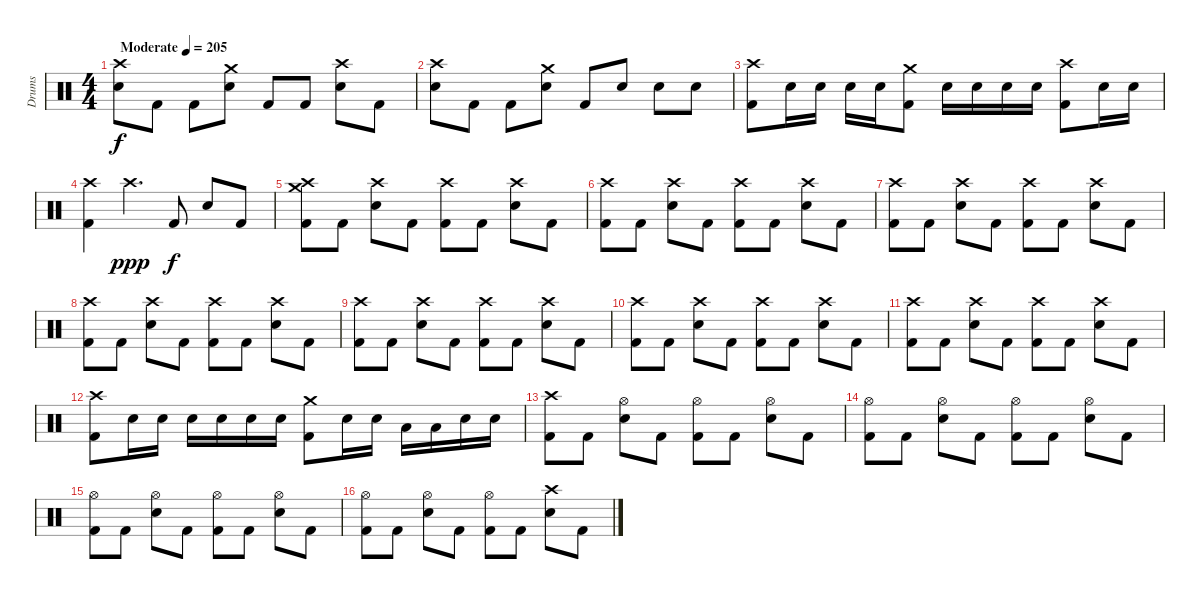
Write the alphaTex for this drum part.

\track ("Drums" "Drums") {instrument percussion}
\staff {score}
\articulation defaults
\ts (4 4)
\tempo (205 "Moderate")
\clef neutral
\ks c
("Crash high (hit)" "Electric Snare (hit)").8{dy f} "Kick (hit) 2".8 "Kick (hit) 2".8 ("Crash medium (hit)" "Electric Snare (hit)").8 "Kick (hit) 2".8 "Kick (hit) 2".8 ("Crash high (hit)" "Electric Snare (hit)").8 "Kick (hit) 2".8 |
("Crash high (hit)" "Electric Snare (hit)").8 "Kick (hit) 2".8 "Kick (hit) 2".8 ("Crash medium (hit)" "Electric Snare (hit)").8 "Kick (hit) 2".8 "Electric Snare (hit)".8 "Electric Snare (hit)".8 "Electric Snare (hit)".8 |
("Crash high (hit)" "Kick (hit) 2").8 "Electric Snare (hit)".16 "Electric Snare (hit)".16 "Electric Snare (hit)".16 "Electric Snare (hit)".16 ("Crash medium (hit)" "Kick (hit) 2").8 "Electric Snare (hit)".16 "Electric Snare (hit)".16 "Electric Snare (hit)".16 "Electric Snare (hit)".16 ("Crash high (hit)" "Kick (hit) 2").8 "Electric Snare (hit)".16 "Electric Snare (hit)".16 |
("Crash high (hit)" "Kick (hit) 2").4 "Crash high (hit)".4{d dy ppp} "Kick (hit) 2".8{dy f} "Electric Snare (hit)".8 "Kick (hit) 2".8 |
("Crash high (hit)" "Crash medium (hit)" "Kick (hit) 2").8 "Kick (hit) 2".8 ("Crash high (hit)" "Electric Snare (hit)").8 "Kick (hit) 2".8 ("Crash high (hit)" "Kick (hit) 2").8 "Kick (hit) 2".8 ("Crash high (hit)" "Electric Snare (hit)").8 "Kick (hit) 2".8 |
("Crash high (hit)" "Kick (hit) 2").8 "Kick (hit) 2".8 ("Crash high (hit)" "Electric Snare (hit)").8 "Kick (hit) 2".8 ("Crash high (hit)" "Kick (hit) 2").8 "Kick (hit) 2".8 ("Crash high (hit)" "Electric Snare (hit)").8 "Kick (hit) 2".8 |
("Crash high (hit)" "Kick (hit) 2").8 "Kick (hit) 2".8 ("Crash high (hit)" "Electric Snare (hit)").8 "Kick (hit) 2".8 ("Crash high (hit)" "Kick (hit) 2").8 "Kick (hit) 2".8 ("Crash high (hit)" "Electric Snare (hit)").8 "Kick (hit) 2".8 |
("Crash high (hit)" "Kick (hit) 2").8 "Kick (hit) 2".8 ("Crash high (hit)" "Electric Snare (hit)").8 "Kick (hit) 2".8 ("Crash high (hit)" "Kick (hit) 2").8 "Kick (hit) 2".8 ("Crash high (hit)" "Electric Snare (hit)").8 "Kick (hit) 2".8 |
("Crash high (hit)" "Kick (hit) 2").8 "Kick (hit) 2".8 ("Crash high (hit)" "Electric Snare (hit)").8 "Kick (hit) 2".8 ("Crash high (hit)" "Kick (hit) 2").8 "Kick (hit) 2".8 ("Crash high (hit)" "Electric Snare (hit)").8 "Kick (hit) 2".8 |
("Crash high (hit)" "Kick (hit) 2").8 "Kick (hit) 2".8 ("Crash high (hit)" "Electric Snare (hit)").8 "Kick (hit) 2".8 ("Crash high (hit)" "Kick (hit) 2").8 "Kick (hit) 2".8 ("Crash high (hit)" "Electric Snare (hit)").8 "Kick (hit) 2".8 |
("Crash high (hit)" "Kick (hit) 2").8 "Kick (hit) 2".8 ("Crash high (hit)" "Electric Snare (hit)").8 "Kick (hit) 2".8 ("Crash high (hit)" "Kick (hit) 2").8 "Kick (hit) 2".8 ("Crash high (hit)" "Electric Snare (hit)").8 "Kick (hit) 2".8 |
("Crash high (hit)" "Kick (hit) 2").8 "Electric Snare (hit)".16 "Electric Snare (hit)".16 "Electric Snare (hit)".16 "Electric Snare (hit)".16 "Electric Snare (hit)".16 "Electric Snare (hit)".16 ("Crash medium (hit)" "Kick (hit) 2").8 "Electric Snare (hit)".16 "Electric Snare (hit)".16 "Low Tom (hit)".16 "Low Tom (hit)".16 "Electric Snare (hit)".16 "Electric Snare (hit)".16 |
("Crash high (hit)" "Kick (hit) 2").8 "Kick (hit) 2".8 ("Hi-Hat (open)" "Electric Snare (hit)").8 "Kick (hit) 2".8 ("Hi-Hat (open)" "Kick (hit) 2").8 "Kick (hit) 2".8 ("Hi-Hat (open)" "Electric Snare (hit)").8 "Kick (hit) 2".8 |
("Hi-Hat (open)" "Kick (hit) 2").8 "Kick (hit) 2".8 ("Hi-Hat (open)" "Electric Snare (hit)").8 "Kick (hit) 2".8 ("Hi-Hat (open)" "Kick (hit) 2").8 "Kick (hit) 2".8 ("Hi-Hat (open)" "Electric Snare (hit)").8 "Kick (hit) 2".8 |
("Hi-Hat (open)" "Kick (hit) 2").8 "Kick (hit) 2".8 ("Hi-Hat (open)" "Electric Snare (hit)").8 "Kick (hit) 2".8 ("Hi-Hat (open)" "Kick (hit) 2").8 "Kick (hit) 2".8 ("Hi-Hat (open)" "Electric Snare (hit)").8 "Kick (hit) 2".8 |
("Hi-Hat (open)" "Kick (hit) 2").8 "Kick (hit) 2".8 ("Hi-Hat (open)" "Electric Snare (hit)").8 "Kick (hit) 2".8 ("Hi-Hat (open)" "Kick (hit) 2").8 "Kick (hit) 2".8 ("Crash high (hit)" "Electric Snare (hit)").8 "Kick (hit) 2".8
